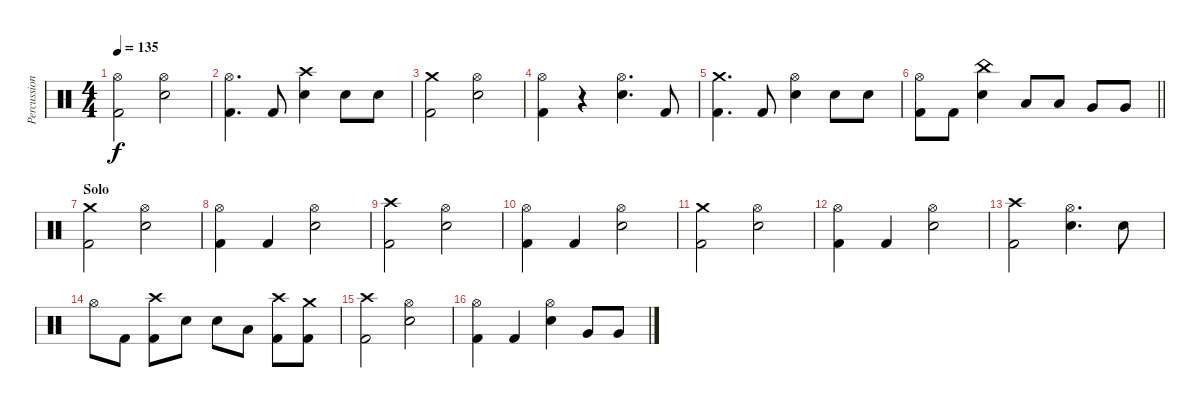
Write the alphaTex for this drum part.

\track ("Percussion" "Percussion") {instrument percussion}
\staff {score}
\articulation defaults
\ts (4 4)
\tempo 135
\clef neutral
\ks c
("Hi-Hat (open)" "Kick (hit) 2").2{dy f} ("Hi-Hat (open)" "Electric Snare (hit)").2 |
("Hi-Hat (open)" "Kick (hit) 2").4{d} "Kick (hit) 2".8 ("Crash high (hit)" "Electric Snare (hit)").4 "Electric Snare (hit)".8 "Electric Snare (hit)".8 |
("Crash medium (hit)" "Kick (hit) 2").2 ("Hi-Hat (open)" "Electric Snare (hit)").2 |
("Hi-Hat (open)" "Kick (hit) 2").4 r.4 ("Hi-Hat (open)" "Electric Snare (hit)").4{d} "Kick (hit) 2".8 |
("Crash medium (hit)" "Kick (hit) 2").4{d} "Kick (hit) 2".8 ("Hi-Hat (open)" "Electric Snare (hit)").4 "Electric Snare (hit)".8 "Electric Snare (hit)".8 |
\barLineRight lightlight
("Hi-Hat (open)" "Kick (hit) 2").8 "Kick (hit) 2".8 ("China (hit)" "Electric Snare (hit)").4 "Low Tom (hit)".8 "Low Tom (hit)".8 "Very Low Tom (hit)".8 "Very Low Tom (hit)".8 |
\section ("" "Solo")
("Crash medium (hit)" "Kick (hit) 2").2 ("Hi-Hat (open)" "Electric Snare (hit)").2 |
("Hi-Hat (open)" "Kick (hit) 2").4 "Kick (hit) 2".4 ("Hi-Hat (open)" "Electric Snare (hit)").2 |
("Crash high (hit)" "Kick (hit) 2").2 ("Hi-Hat (open)" "Electric Snare (hit)").2 |
("Hi-Hat (open)" "Kick (hit) 2").4 "Kick (hit) 2".4 ("Hi-Hat (open)" "Electric Snare (hit)").2 |
("Crash medium (hit)" "Kick (hit) 2").2 ("Hi-Hat (open)" "Electric Snare (hit)").2 |
("Hi-Hat (open)" "Kick (hit) 2").4 "Kick (hit) 2".4 ("Hi-Hat (open)" "Electric Snare (hit)").2 |
("Crash high (hit)" "Kick (hit) 2").2 ("Hi-Hat (open)" "Electric Snare (hit)").4{d} "Electric Snare (hit)".8 |
"Hi-Hat (open)".8 "Kick (hit) 2".8 ("Crash high (hit)" "Kick (hit) 2").8 "Electric Snare (hit)".8 "Electric Snare (hit)".8 "Low Tom (hit)".8 ("Crash high (hit)" "Kick (hit) 2").8 ("Crash medium (hit)" "Kick (hit) 2").8 |
("Crash high (hit)" "Kick (hit) 2").2 ("Hi-Hat (open)" "Electric Snare (hit)").2 |
("Hi-Hat (open)" "Kick (hit) 2").4 "Kick (hit) 2".4 ("Hi-Hat (open)" "Electric Snare (hit)").4 "Very Low Tom (hit)".8 "Very Low Tom (hit)".8
